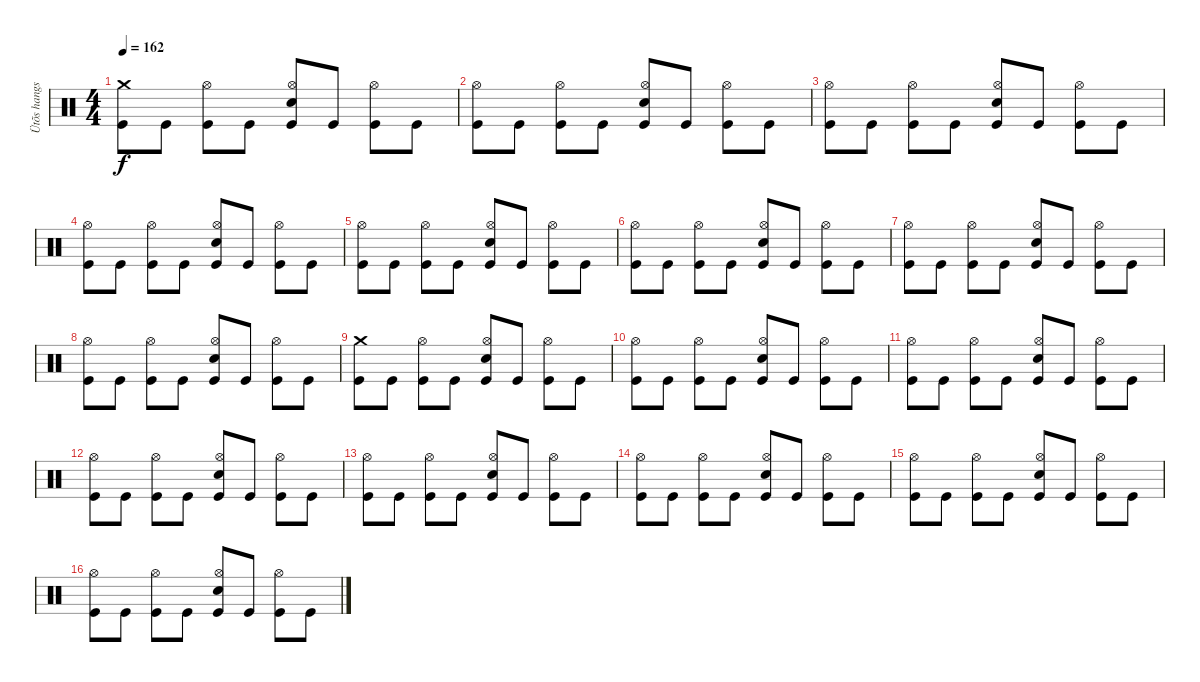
\track ("Ütõs hangszer" "Ütõs hangs") {instrument percussion}
\staff {score}
\articulation defaults
\ts (4 4)
\tempo 162
\clef neutral
\ks c
("Crash medium (hit)" "Kick (hit)").8{dy f} "Kick (hit)".8 ("Hi-Hat (open)" "Kick (hit)").8 "Kick (hit)".8 ("Hi-Hat (open)" "Electric Snare (hit)" "Kick (hit)").8 "Kick (hit)".8 ("Hi-Hat (open)" "Kick (hit)").8 "Kick (hit)".8 |
("Hi-Hat (open)" "Kick (hit)").8 "Kick (hit)".8 ("Hi-Hat (open)" "Kick (hit)").8 "Kick (hit)".8 ("Hi-Hat (open)" "Electric Snare (hit)" "Kick (hit)").8 "Kick (hit)".8 ("Hi-Hat (open)" "Kick (hit)").8 "Kick (hit)".8 |
("Hi-Hat (open)" "Kick (hit)").8 "Kick (hit)".8 ("Hi-Hat (open)" "Kick (hit)").8 "Kick (hit)".8 ("Hi-Hat (open)" "Electric Snare (hit)" "Kick (hit)").8 "Kick (hit)".8 ("Hi-Hat (open)" "Kick (hit)").8 "Kick (hit)".8 |
("Hi-Hat (open)" "Kick (hit)").8 "Kick (hit)".8 ("Hi-Hat (open)" "Kick (hit)").8 "Kick (hit)".8 ("Hi-Hat (open)" "Electric Snare (hit)" "Kick (hit)").8 "Kick (hit)".8 ("Hi-Hat (open)" "Kick (hit)").8 "Kick (hit)".8 |
("Hi-Hat (open)" "Kick (hit)").8 "Kick (hit)".8 ("Hi-Hat (open)" "Kick (hit)").8 "Kick (hit)".8 ("Hi-Hat (open)" "Electric Snare (hit)" "Kick (hit)").8 "Kick (hit)".8 ("Hi-Hat (open)" "Kick (hit)").8 "Kick (hit)".8 |
("Hi-Hat (open)" "Kick (hit)").8 "Kick (hit)".8 ("Hi-Hat (open)" "Kick (hit)").8 "Kick (hit)".8 ("Hi-Hat (open)" "Electric Snare (hit)" "Kick (hit)").8 "Kick (hit)".8 ("Hi-Hat (open)" "Kick (hit)").8 "Kick (hit)".8 |
("Hi-Hat (open)" "Kick (hit)").8 "Kick (hit)".8 ("Hi-Hat (open)" "Kick (hit)").8 "Kick (hit)".8 ("Hi-Hat (open)" "Electric Snare (hit)" "Kick (hit)").8 "Kick (hit)".8 ("Hi-Hat (open)" "Kick (hit)").8 "Kick (hit)".8 |
("Hi-Hat (open)" "Kick (hit)").8 "Kick (hit)".8 ("Hi-Hat (open)" "Kick (hit)").8 "Kick (hit)".8 ("Hi-Hat (open)" "Electric Snare (hit)" "Kick (hit)").8 "Kick (hit)".8 ("Hi-Hat (open)" "Kick (hit)").8 "Kick (hit)".8 |
("Crash medium (hit)" "Kick (hit)").8 "Kick (hit)".8 ("Hi-Hat (open)" "Kick (hit)").8 "Kick (hit)".8 ("Hi-Hat (open)" "Electric Snare (hit)" "Kick (hit)").8 "Kick (hit)".8 ("Hi-Hat (open)" "Kick (hit)").8 "Kick (hit)".8 |
("Hi-Hat (open)" "Kick (hit)").8 "Kick (hit)".8 ("Hi-Hat (open)" "Kick (hit)").8 "Kick (hit)".8 ("Hi-Hat (open)" "Electric Snare (hit)" "Kick (hit)").8 "Kick (hit)".8 ("Hi-Hat (open)" "Kick (hit)").8 "Kick (hit)".8 |
("Hi-Hat (open)" "Kick (hit)").8 "Kick (hit)".8 ("Hi-Hat (open)" "Kick (hit)").8 "Kick (hit)".8 ("Hi-Hat (open)" "Electric Snare (hit)" "Kick (hit)").8 "Kick (hit)".8 ("Hi-Hat (open)" "Kick (hit)").8 "Kick (hit)".8 |
("Hi-Hat (open)" "Kick (hit)").8 "Kick (hit)".8 ("Hi-Hat (open)" "Kick (hit)").8 "Kick (hit)".8 ("Hi-Hat (open)" "Electric Snare (hit)" "Kick (hit)").8 "Kick (hit)".8 ("Hi-Hat (open)" "Kick (hit)").8 "Kick (hit)".8 |
("Hi-Hat (open)" "Kick (hit)").8 "Kick (hit)".8 ("Hi-Hat (open)" "Kick (hit)").8 "Kick (hit)".8 ("Hi-Hat (open)" "Electric Snare (hit)" "Kick (hit)").8 "Kick (hit)".8 ("Hi-Hat (open)" "Kick (hit)").8 "Kick (hit)".8 |
("Hi-Hat (open)" "Kick (hit)").8 "Kick (hit)".8 ("Hi-Hat (open)" "Kick (hit)").8 "Kick (hit)".8 ("Hi-Hat (open)" "Electric Snare (hit)" "Kick (hit)").8 "Kick (hit)".8 ("Hi-Hat (open)" "Kick (hit)").8 "Kick (hit)".8 |
("Hi-Hat (open)" "Kick (hit)").8 "Kick (hit)".8 ("Hi-Hat (open)" "Kick (hit)").8 "Kick (hit)".8 ("Hi-Hat (open)" "Electric Snare (hit)" "Kick (hit)").8 "Kick (hit)".8 ("Hi-Hat (open)" "Kick (hit)").8 "Kick (hit)".8 |
("Hi-Hat (open)" "Kick (hit)").8 "Kick (hit)".8 ("Hi-Hat (open)" "Kick (hit)").8 "Kick (hit)".8 ("Hi-Hat (open)" "Electric Snare (hit)" "Kick (hit)").8 "Kick (hit)".8 ("Hi-Hat (open)" "Kick (hit)").8 "Kick (hit)".8
